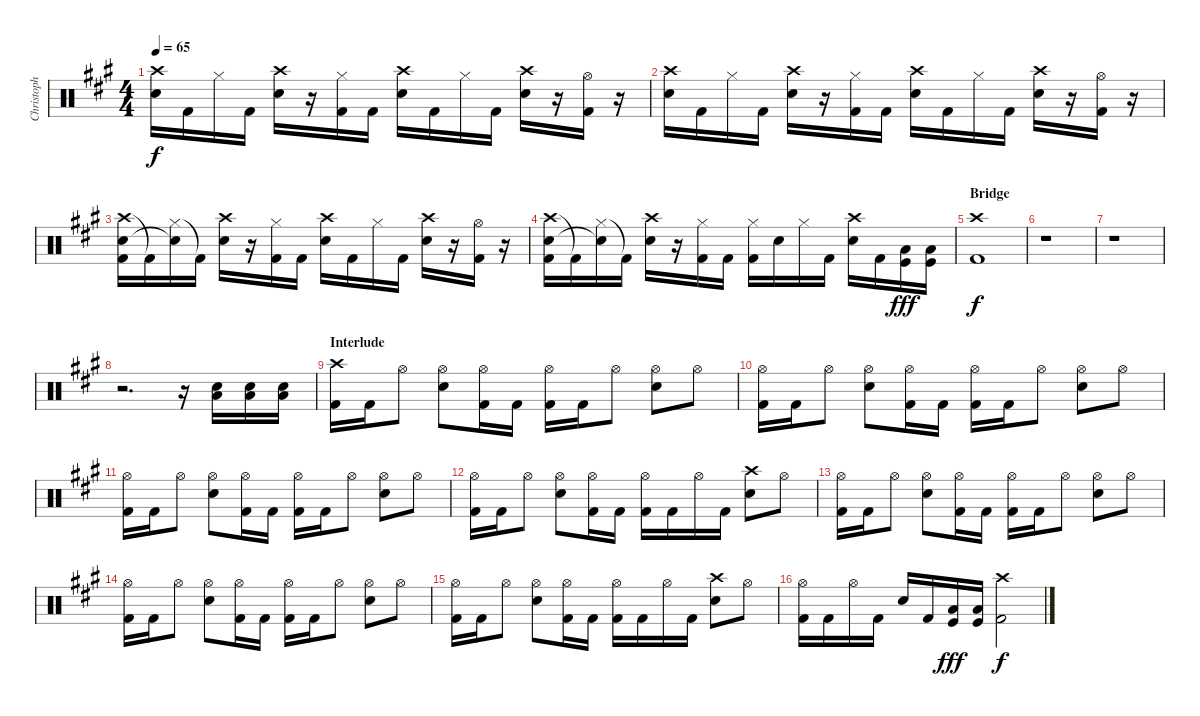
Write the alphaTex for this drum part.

\track ("Christoph Doom Schneider - Drums" "Christoph ") {instrument percussion}
\staff {score}
\articulation defaults
\ts (4 4)
\tempo 65
\clef neutral
\ks a
("Crash high (hit)" "Electric Snare (hit)").16{dy f} "Kick (hit) 2".16 "Hi-Hat (closed)".16 "Kick (hit) 2".16 ("Crash high (hit)" "Electric Snare (hit)").16 r.16 ("Hi-Hat (closed)" "Kick (hit) 2").16 "Kick (hit) 2".16 ("Crash high (hit)" "Electric Snare (hit)").16 "Kick (hit) 2".16 "Hi-Hat (closed)".16 "Kick (hit) 2".16 ("Crash high (hit)" "Electric Snare (hit)").16 r.16 ("Hi-Hat (open)" "Kick (hit) 2").16 r.16 |
("Crash high (hit)" "Electric Snare (hit)").16 "Kick (hit) 2".16 "Hi-Hat (closed)".16 "Kick (hit) 2".16 ("Crash high (hit)" "Electric Snare (hit)").16 r.16 ("Hi-Hat (closed)" "Kick (hit) 2").16 "Kick (hit) 2".16 ("Crash high (hit)" "Electric Snare (hit)").16 "Kick (hit) 2".16 "Hi-Hat (closed)".16 "Kick (hit) 2"{tr (36 64)}.16 ("Crash high (hit)" "Electric Snare (hit)").16 r.16 ("Hi-Hat (open)" "Kick (hit) 2").16 r.16 |
("Crash high (hit)" "Electric Snare (hit)" "Kick (hit) 2"{tr (36 32)}).16 "Kick (hit) 2"{t}.16 ("Hi-Hat (closed)" "Snare (hit)"{t}).16 "Kick (hit) 2"{t}.16 ("Crash high (hit)" "Electric Snare (hit)").16 r.16 ("Hi-Hat (closed)" "Kick (hit) 2").16 "Kick (hit) 2".16 ("Crash high (hit)" "Electric Snare (hit)").16 "Kick (hit) 2".16 "Hi-Hat (closed)".16 "Kick (hit) 2".16 ("Crash high (hit)" "Electric Snare (hit)").16 r.16 ("Hi-Hat (open)" "Kick (hit) 2").16 r.16 |
("Crash high (hit)" "Electric Snare (hit)" "Kick (hit) 2"{tr (36 32)}).16 "Kick (hit) 2"{t}.16 ("Hi-Hat (closed)" "Snare (hit)"{t}).16 "Kick (hit) 2"{t}.16 ("Crash high (hit)" "Electric Snare (hit)").16 r.16 ("Hi-Hat (closed)" "Kick (hit) 2").16 "Kick (hit) 2".16 ("Hi-Hat (closed)" "Kick (hit) 2").16 "Electric Snare (hit)".16 "Hi-Hat (closed)".16 "Kick (hit) 2".16 ("Crash high (hit)" "Electric Snare (hit)").16 "Kick (hit) 2".16 ("Low Floor Tom (hit)" "Kick (hit)").16{dy fff} ("Low Floor Tom (hit)" "Kick (hit)").16 |
\section ("" "Bridge")
("Crash high (hit)" "Kick (hit) 2").1{dy f} |
r.1 |
r.1 |
r.2{d} r.16 ("Electric Snare (hit)" "Low Floor Tom (hit)").16 ("Electric Snare (hit)" "Low Floor Tom (hit)").16 ("Electric Snare (hit)" "Low Floor Tom (hit)").16 |
\section ("" "Interlude")
("Crash high (hit)" "Kick (hit) 2").16 "Kick (hit) 2".16 "Hi-Hat (open)".8 ("Hi-Hat (open)" "Electric Snare (hit)").8 ("Hi-Hat (open)" "Kick (hit) 2").16 "Kick (hit) 2".16 ("Hi-Hat (open)" "Kick (hit) 2").16 "Kick (hit) 2".16 "Hi-Hat (open)".8 ("Hi-Hat (open)" "Electric Snare (hit)").8 "Hi-Hat (open)".8 |
("Hi-Hat (open)" "Kick (hit) 2").16 "Kick (hit) 2".16 "Hi-Hat (open)".8 ("Hi-Hat (open)" "Electric Snare (hit)").8 ("Hi-Hat (open)" "Kick (hit) 2").16 "Kick (hit) 2".16 ("Hi-Hat (open)" "Kick (hit) 2").16 "Kick (hit) 2".16 "Hi-Hat (open)".8 ("Hi-Hat (open)" "Electric Snare (hit)").8 "Hi-Hat (open)".8 |
("Hi-Hat (open)" "Kick (hit) 2").16 "Kick (hit) 2".16 "Hi-Hat (open)".8 ("Hi-Hat (open)" "Electric Snare (hit)").8 ("Hi-Hat (open)" "Kick (hit) 2").16 "Kick (hit) 2".16 ("Hi-Hat (open)" "Kick (hit) 2").16 "Kick (hit) 2".16 "Hi-Hat (open)".8 ("Hi-Hat (open)" "Electric Snare (hit)").8 "Hi-Hat (open)".8 |
("Hi-Hat (open)" "Kick (hit) 2").16 "Kick (hit) 2".16 "Hi-Hat (open)".8 ("Hi-Hat (open)" "Electric Snare (hit)").8 ("Hi-Hat (open)" "Kick (hit) 2").16 "Kick (hit) 2".16 ("Hi-Hat (open)" "Kick (hit) 2").16 "Kick (hit) 2".16 "Hi-Hat (open)".16 "Kick (hit) 2"{tr (36 64)}.16 ("Crash high (hit)" "Electric Snare (hit)").8 "Hi-Hat (open)".8 |
("Hi-Hat (open)" "Kick (hit) 2").16 "Kick (hit) 2".16 "Hi-Hat (open)".8 ("Hi-Hat (open)" "Electric Snare (hit)").8 ("Hi-Hat (open)" "Kick (hit) 2").16 "Kick (hit) 2".16 ("Hi-Hat (open)" "Kick (hit) 2").16 "Kick (hit) 2".16 "Hi-Hat (open)".8 ("Hi-Hat (open)" "Electric Snare (hit)").8 "Hi-Hat (open)".8 |
("Hi-Hat (open)" "Kick (hit) 2").16 "Kick (hit) 2".16 "Hi-Hat (open)".8 ("Hi-Hat (open)" "Electric Snare (hit)").8 ("Hi-Hat (open)" "Kick (hit) 2").16 "Kick (hit) 2".16 ("Hi-Hat (open)" "Kick (hit) 2").16 "Kick (hit) 2".16 "Hi-Hat (open)".8 ("Hi-Hat (open)" "Electric Snare (hit)").8 "Hi-Hat (open)".8 |
("Hi-Hat (open)" "Kick (hit) 2").16 "Kick (hit) 2".16 "Hi-Hat (open)".8 ("Hi-Hat (open)" "Electric Snare (hit)").8 ("Hi-Hat (open)" "Kick (hit) 2").16 "Kick (hit) 2".16 ("Hi-Hat (open)" "Kick (hit) 2").16 "Kick (hit) 2".16 "Hi-Hat (open)".16 "Kick (hit) 2".16 ("Crash high (hit)" "Electric Snare (hit)").8 "Hi-Hat (open)".8 |
("Hi-Hat (open)" "Kick (hit) 2").16 "Kick (hit) 2".16 "Hi-Hat (open)".16 "Kick (hit) 2".16 "Electric Snare (hit)".16 "Kick (hit) 2".16 ("Low Floor Tom (hit)" "Kick (hit)").16{dy fff} ("Low Floor Tom (hit)" "Kick (hit)").16 ("Crash high (hit)" "Kick (hit) 2").2{dy f}
